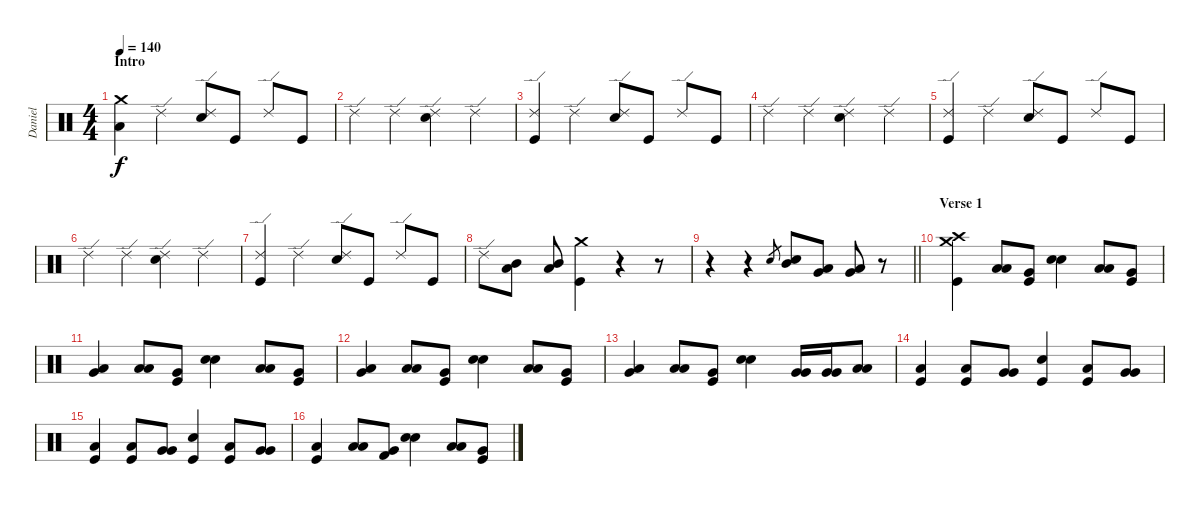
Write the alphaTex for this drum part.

\track ("Daniel" "Daniel") {instrument percussion}
\staff {score}
\articulation defaults
\ts (4 4)
\section ("" "Intro")
\tempo 140
\clef neutral
\ks c
("Crash medium (hit)" "Low Tom (hit)").4{dy f} "Ride (edge) 2".4 ("Ride (edge) 2" "Electric Snare (hit)").8 "Kick (hit)".8 "Ride (edge) 2".8 "Kick (hit)".8 |
"Ride (edge) 2".4 "Ride (edge) 2".4 ("Ride (edge) 2" "Electric Snare (hit)").4 "Ride (edge) 2".4 |
("Ride (edge) 2" "Kick (hit)").4 "Ride (edge) 2".4 ("Ride (edge) 2" "Electric Snare (hit)").8 "Kick (hit)".8 "Ride (edge) 2".8 "Kick (hit)".8 |
"Ride (edge) 2".4 "Ride (edge) 2".4 ("Ride (edge) 2" "Electric Snare (hit)").4 "Ride (edge) 2".4 |
("Ride (edge) 2" "Kick (hit)").4 "Ride (edge) 2".4 ("Ride (edge) 2" "Electric Snare (hit)").8 "Kick (hit)".8 "Ride (edge) 2".8 "Kick (hit)".8 |
"Ride (edge) 2".4 "Ride (edge) 2".4 ("Ride (edge) 2" "Electric Snare (hit)").4 "Ride (edge) 2".4 |
("Ride (edge) 2" "Kick (hit)").4 "Ride (edge) 2".4 ("Ride (edge) 2" "Electric Snare (hit)").8 "Kick (hit)".8 "Ride (edge) 2".8 "Kick (hit)".8 |
"Ride (edge) 2".8 ("Mid Tom (hit)" "Low Tom (hit)").8 ("Mid Tom (hit)" "Low Tom (hit)").8 ("Crash medium (hit)" "Kick (hit)").4 r.4 r.8 |
\barLineRight lightlight
r.4 r.4 "Snare (hit)".8{gr} ("Mid Tom (hit)" "Electric Snare (hit)").8 ("Very Low Tom (hit)" "Low Tom (hit)").8 ("Very Low Tom (hit)" "Low Floor Tom (hit)").8 r.8 |
\section ("" "Verse 1")
("Crash medium (hit)" "Crash high (hit)" "Kick (hit)").4{volume 9} ("Low Tom (hit)" "Low Tom (hit)").8 ("Kick (hit)" "Very Low Tom (hit)").8 ("Electric Snare (hit)" "Electric Snare (hit)").4 ("Low Tom (hit)" "Low Tom (hit)").8 ("Kick (hit)" "Very Low Tom (hit)").8 |
("Very Low Tom (hit)" "Low Floor Tom (hit)").4 ("Low Tom (hit)" "Low Tom (hit)").8 ("Kick (hit)" "Very Low Tom (hit)").8 ("Electric Snare (hit)" "Electric Snare (hit)").4 ("Low Tom (hit)" "Low Tom (hit)").8 ("Kick (hit)" "Very Low Tom (hit)").8 |
("Very Low Tom (hit)" "Low Floor Tom (hit)").4 ("Low Tom (hit)" "Low Tom (hit)").8 ("Kick (hit)" "Very Low Tom (hit)").8 ("Electric Snare (hit)" "Electric Snare (hit)").4 ("Low Tom (hit)" "Low Tom (hit)").8 ("Kick (hit)" "Very Low Tom (hit)").8 |
("Very Low Tom (hit)" "Low Floor Tom (hit)").4 ("Low Tom (hit)" "Low Tom (hit)").8 ("Kick (hit)" "Very Low Tom (hit)").8 ("Electric Snare (hit)" "Electric Snare (hit)").4 ("Very Low Tom (hit)" "Very Low Tom (hit)").16 ("Very Low Tom (hit)" "Very Low Tom (hit)").16 ("Low Tom (hit)" "Low Tom (hit)").8 |
("Kick (hit)" "Low Floor Tom (hit)").4 ("Kick (hit)" "Low Tom (hit)").8 ("Very Low Tom (hit)" "Very Low Tom (hit)").8 ("Kick (hit)" "Electric Snare (hit)").4 ("Kick (hit)" "Low Tom (hit)").8 ("Very Low Tom (hit)" "Very Low Tom (hit)").8 |
("Kick (hit)" "Low Floor Tom (hit)").4 ("Kick (hit)" "Low Tom (hit)").8 ("Very Low Tom (hit)" "Very Low Tom (hit)").8 ("Kick (hit)" "Electric Snare (hit)").4 ("Kick (hit)" "Low Tom (hit)").8 ("Very Low Tom (hit)" "Very Low Tom (hit)").8 |
("Kick (hit)" "Low Floor Tom (hit)").4 ("Low Tom (hit)" "Low Tom (hit)").8 ("Kick (hit) 2" "Very Low Tom (hit)").8 ("Electric Snare (hit)" "Electric Snare (hit)").4 ("Low Tom (hit)" "Low Tom (hit)").8 ("Kick (hit)" "Very Low Tom (hit)").8
